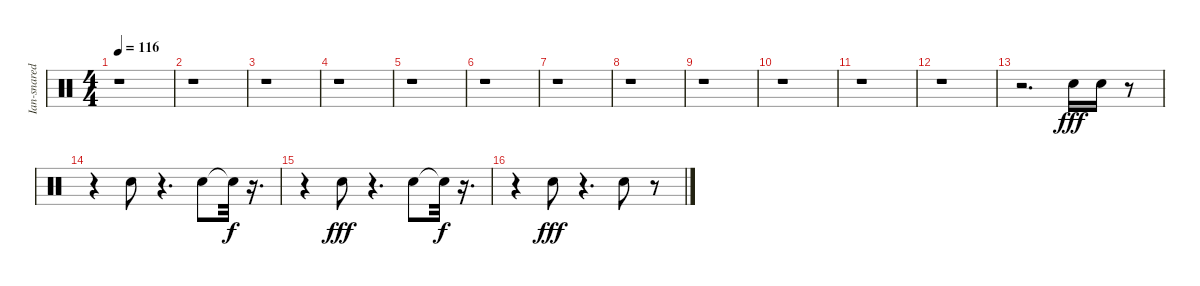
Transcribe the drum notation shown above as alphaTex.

\track ("Ian-snaredrum" "Ian-snared") {instrument percussion}
\staff {score}
\articulation defaults
\ts (4 4)
\tempo 116
\clef neutral
\ks c
r.1{dy fff} |
r.1 |
r.1 |
r.1 |
r.1 |
r.1 |
r.1 |
r.1 |
r.1 |
r.1 |
r.1 |
r.1 |
r.2{d} "Electric Snare (hit)".16 "Electric Snare (hit)".16 r.8 |
r.4 "Electric Snare (hit)".8 r.4{d} "Electric Snare (hit)".8 "Snare (hit)"{t}.32{dy f} r.16{d} |
r.4 "Electric Snare (hit)".8{dy fff} r.4{d} "Electric Snare (hit)".8 "Snare (hit)"{t}.32{dy f} r.16{d} |
r.4 "Electric Snare (hit)".8{dy fff} r.4{d} "Electric Snare (hit)".8 r.8
